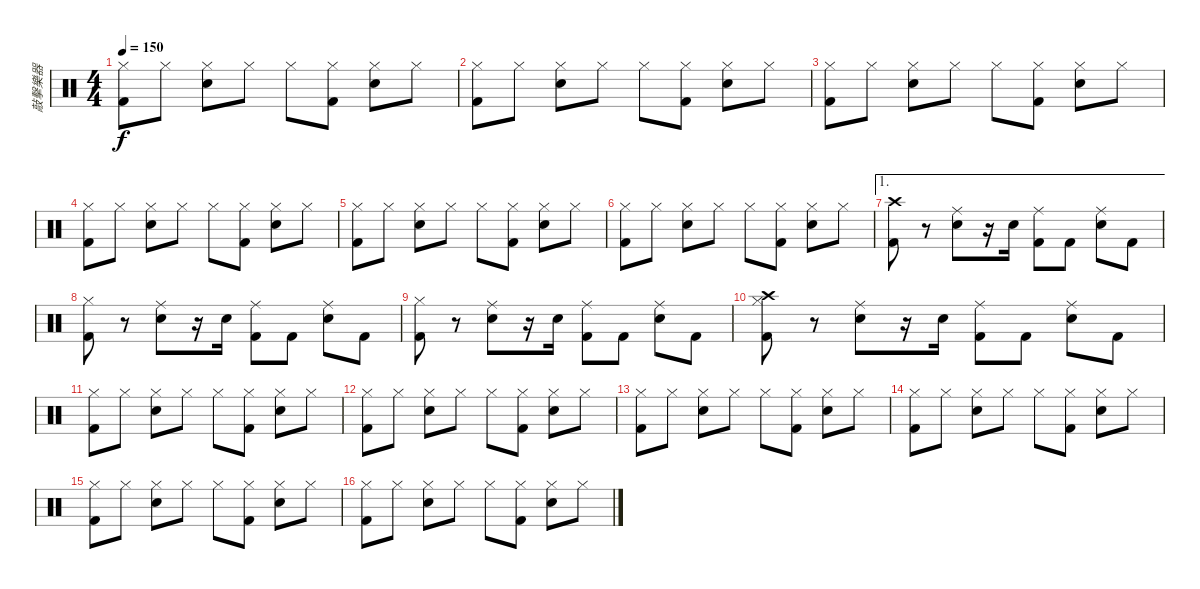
\track ("敲擊樂器" "敲擊樂器") {instrument percussion}
\staff {score}
\articulation defaults
\ts (4 4)
\tempo 150
\clef neutral
\ks c
("Hi-Hat (closed)" "Kick (hit) 2").8{dy f} "Hi-Hat (closed)".8 ("Hi-Hat (closed)" "Electric Snare (hit)").8 "Hi-Hat (closed)".8 "Hi-Hat (closed)".8 ("Hi-Hat (closed)" "Kick (hit) 2").8 ("Hi-Hat (closed)" "Electric Snare (hit)").8 "Hi-Hat (closed)".8 |
("Hi-Hat (closed)" "Kick (hit) 2").8 "Hi-Hat (closed)".8 ("Hi-Hat (closed)" "Electric Snare (hit)").8 "Hi-Hat (closed)".8 "Hi-Hat (closed)".8 ("Hi-Hat (closed)" "Kick (hit) 2").8 ("Hi-Hat (closed)" "Electric Snare (hit)").8 "Hi-Hat (closed)".8 |
("Hi-Hat (closed)" "Kick (hit) 2").8 "Hi-Hat (closed)".8 ("Hi-Hat (closed)" "Electric Snare (hit)").8 "Hi-Hat (closed)".8 "Hi-Hat (closed)".8 ("Hi-Hat (closed)" "Kick (hit) 2").8 ("Hi-Hat (closed)" "Electric Snare (hit)").8 "Hi-Hat (closed)".8 |
("Hi-Hat (closed)" "Kick (hit) 2").8 "Hi-Hat (closed)".8 ("Hi-Hat (closed)" "Electric Snare (hit)").8 "Hi-Hat (closed)".8 "Hi-Hat (closed)".8 ("Hi-Hat (closed)" "Kick (hit) 2").8 ("Hi-Hat (closed)" "Electric Snare (hit)").8 "Hi-Hat (closed)".8 |
("Hi-Hat (closed)" "Kick (hit) 2").8 "Hi-Hat (closed)".8 ("Hi-Hat (closed)" "Electric Snare (hit)").8 "Hi-Hat (closed)".8 "Hi-Hat (closed)".8 ("Hi-Hat (closed)" "Kick (hit) 2").8 ("Hi-Hat (closed)" "Electric Snare (hit)").8 "Hi-Hat (closed)".8 |
("Hi-Hat (closed)" "Kick (hit) 2").8 "Hi-Hat (closed)".8 ("Hi-Hat (closed)" "Electric Snare (hit)").8 "Hi-Hat (closed)".8 "Hi-Hat (closed)".8 ("Hi-Hat (closed)" "Kick (hit) 2").8 ("Hi-Hat (closed)" "Electric Snare (hit)").8 "Hi-Hat (closed)".8 |
\ae 1
("Crash high (hit)" "Kick (hit) 2").8 r.8 ("Ride (middle)" "Electric Snare (hit)").8 r.16 "Electric Snare (hit)".16 ("Ride (middle)" "Kick (hit) 2").8 "Kick (hit) 2".8 ("Ride (middle)" "Electric Snare (hit)").8 "Kick (hit) 2".8 |
("Hi-Hat (closed)" "Kick (hit) 2").8 r.8 ("Ride (middle)" "Electric Snare (hit)").8 r.16 "Electric Snare (hit)".16 ("Ride (middle)" "Kick (hit) 2").8 "Kick (hit) 2".8 ("Ride (middle)" "Electric Snare (hit)").8 "Kick (hit) 2".8 |
("Hi-Hat (closed)" "Kick (hit) 2").8 r.8 ("Ride (middle)" "Electric Snare (hit)").8 r.16 "Electric Snare (hit)".16 ("Ride (middle)" "Kick (hit) 2").8 "Kick (hit) 2".8 ("Ride (middle)" "Electric Snare (hit)").8 "Kick (hit) 2".8 |
("Crash high (hit)" "Hi-Hat (closed)" "Kick (hit) 2").8 r.8 ("Ride (middle)" "Electric Snare (hit)").8 r.16 "Electric Snare (hit)".16 ("Ride (middle)" "Kick (hit) 2").8 "Kick (hit) 2".8 ("Ride (middle)" "Electric Snare (hit)").8 "Kick (hit) 2".8 |
("Hi-Hat (closed)" "Kick (hit) 2").8 "Hi-Hat (closed)".8 ("Hi-Hat (closed)" "Electric Snare (hit)").8 "Hi-Hat (closed)".8 "Hi-Hat (closed)".8 ("Hi-Hat (closed)" "Kick (hit) 2").8 ("Hi-Hat (closed)" "Electric Snare (hit)").8 "Hi-Hat (closed)".8 |
("Hi-Hat (closed)" "Kick (hit) 2").8 "Hi-Hat (closed)".8 ("Hi-Hat (closed)" "Electric Snare (hit)").8 "Hi-Hat (closed)".8 "Hi-Hat (closed)".8 ("Hi-Hat (closed)" "Kick (hit) 2").8 ("Hi-Hat (closed)" "Electric Snare (hit)").8 "Hi-Hat (closed)".8 |
("Hi-Hat (closed)" "Kick (hit) 2").8 "Hi-Hat (closed)".8 ("Hi-Hat (closed)" "Electric Snare (hit)").8 "Hi-Hat (closed)".8 "Hi-Hat (closed)".8 ("Hi-Hat (closed)" "Kick (hit) 2").8 ("Hi-Hat (closed)" "Electric Snare (hit)").8 "Hi-Hat (closed)".8 |
("Hi-Hat (closed)" "Kick (hit) 2").8 "Hi-Hat (closed)".8 ("Hi-Hat (closed)" "Electric Snare (hit)").8 "Hi-Hat (closed)".8 "Hi-Hat (closed)".8 ("Hi-Hat (closed)" "Kick (hit) 2").8 ("Hi-Hat (closed)" "Electric Snare (hit)").8 "Hi-Hat (closed)".8 |
("Hi-Hat (closed)" "Kick (hit) 2").8 "Hi-Hat (closed)".8 ("Hi-Hat (closed)" "Electric Snare (hit)").8 "Hi-Hat (closed)".8 "Hi-Hat (closed)".8 ("Hi-Hat (closed)" "Kick (hit) 2").8 ("Hi-Hat (closed)" "Electric Snare (hit)").8 "Hi-Hat (closed)".8 |
("Hi-Hat (closed)" "Kick (hit) 2").8 "Hi-Hat (closed)".8 ("Hi-Hat (closed)" "Electric Snare (hit)").8 "Hi-Hat (closed)".8 "Hi-Hat (closed)".8 ("Hi-Hat (closed)" "Kick (hit) 2").8 ("Hi-Hat (closed)" "Electric Snare (hit)").8 "Hi-Hat (closed)".8
